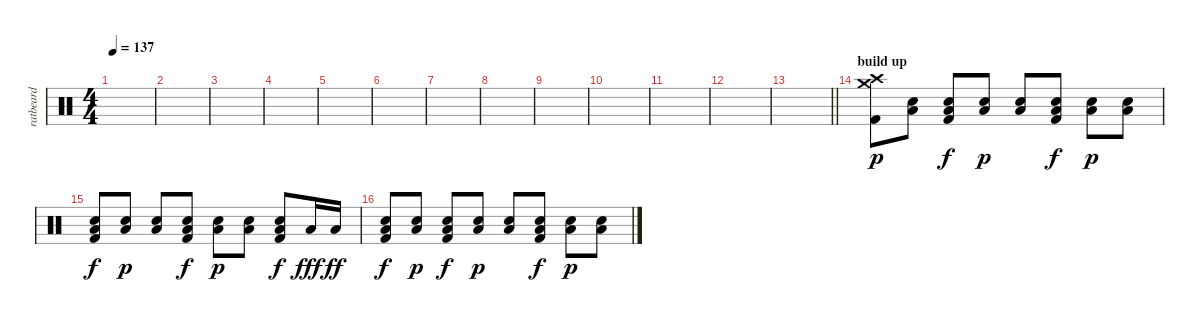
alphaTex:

\track ("ratbeard" "ratbeard") {instrument percussion}
\staff {score}
\articulation defaults
\ts (4 4)
\tempo 137
\clef neutral
\ks c
|
|
|
|
|
|
|
|
|
|
|
|
\barLineRight lightlight
|
\section ("" "build up")
("Crash medium (hit)" "Crash high (hit)" "Kick (hit) 2").8{dy p} ("Low Floor Tom (hit)" "Electric Snare (hit)").8 ("Low Floor Tom (hit)" "Electric Snare (hit)" "Kick (hit) 2").8{dy f} ("Low Floor Tom (hit)" "Electric Snare (hit)").8{dy p} ("Low Floor Tom (hit)" "Electric Snare (hit)").8 ("Low Floor Tom (hit)" "Electric Snare (hit)" "Kick (hit) 2").8{dy f} ("Low Floor Tom (hit)" "Electric Snare (hit)").8{dy p} ("Low Floor Tom (hit)" "Electric Snare (hit)").8 |
("Low Floor Tom (hit)" "Electric Snare (hit)" "Kick (hit) 2").8{dy f} ("Low Floor Tom (hit)" "Electric Snare (hit)").8{dy p} ("Low Floor Tom (hit)" "Electric Snare (hit)").8 ("Low Floor Tom (hit)" "Electric Snare (hit)" "Kick (hit) 2").8{dy f} ("Low Floor Tom (hit)" "Electric Snare (hit)").8{dy p} ("Low Floor Tom (hit)" "Electric Snare (hit)").8 ("Low Floor Tom (hit)" "Electric Snare (hit)" "Kick (hit) 2").8{dy f} "Low Floor Tom (hit)".16{dy fff} "Low Floor Tom (hit)".16{dy ff} |
("Low Floor Tom (hit)" "Electric Snare (hit)" "Kick (hit) 2").8{dy f} ("Low Floor Tom (hit)" "Electric Snare (hit)").8{dy p} ("Low Floor Tom (hit)" "Electric Snare (hit)" "Kick (hit) 2").8{dy f} ("Low Floor Tom (hit)" "Electric Snare (hit)").8{dy p} ("Low Floor Tom (hit)" "Electric Snare (hit)").8 ("Low Floor Tom (hit)" "Electric Snare (hit)" "Kick (hit) 2").8{dy f} ("Low Floor Tom (hit)" "Electric Snare (hit)").8{dy p} ("Low Floor Tom (hit)" "Electric Snare (hit)").8
